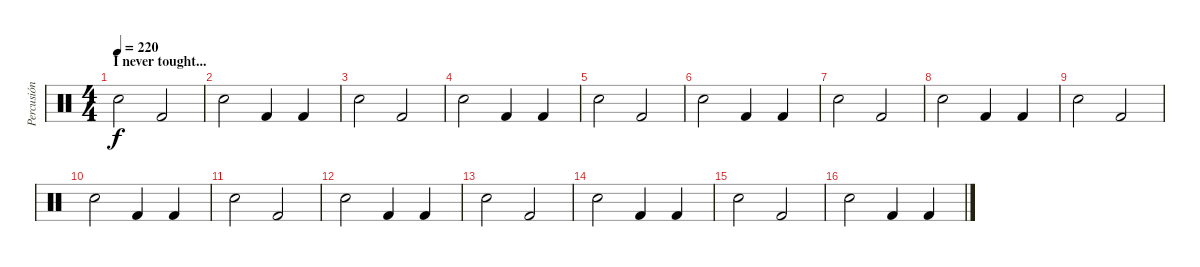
\track ("Percusión" "Percusión") {instrument percussion}
\staff {score}
\articulation defaults
\ts (4 4)
\section ("" "I never tought...")
\tempo 220
\clef neutral
\ks c "Electric Snare (hit)".2{dy f} "Kick (hit) 2".2
|
"Electric Snare (hit)".2 "Kick (hit) 2".4 "Kick (hit) 2".4 |
"Electric Snare (hit)".2 "Kick (hit) 2".2 |
"Electric Snare (hit)".2 "Kick (hit) 2".4 "Kick (hit) 2".4 |
"Electric Snare (hit)".2 "Kick (hit) 2".2 |
"Electric Snare (hit)".2 "Kick (hit) 2".4 "Kick (hit) 2".4 |
"Electric Snare (hit)".2 "Kick (hit) 2".2 |
"Electric Snare (hit)".2 "Kick (hit) 2".4 "Kick (hit) 2".4 |
"Electric Snare (hit)".2 "Kick (hit) 2".2 |
"Electric Snare (hit)".2 "Kick (hit) 2".4 "Kick (hit) 2".4 |
"Electric Snare (hit)".2 "Kick (hit) 2".2 |
"Electric Snare (hit)".2 "Kick (hit) 2".4 "Kick (hit) 2".4 |
"Electric Snare (hit)".2 "Kick (hit) 2".2 |
"Electric Snare (hit)".2 "Kick (hit) 2".4 "Kick (hit) 2".4 |
"Electric Snare (hit)".2 "Kick (hit) 2".2 |
"Electric Snare (hit)".2 "Kick (hit) 2".4 "Kick (hit) 2".4
